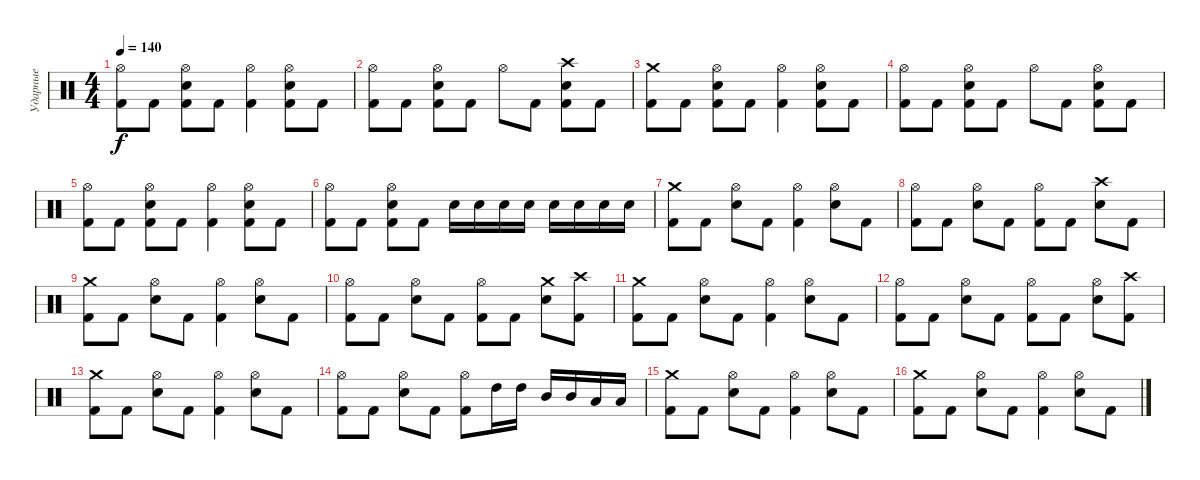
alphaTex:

\track ("Ударные" "Ударные") {instrument percussion}
\staff {score}
\articulation defaults
\ts (4 4)
\tempo 140
\clef neutral
\ks c
("Hi-Hat (open)" "Kick (hit) 2").8{dy f} "Kick (hit) 2".8 ("Hi-Hat (open)" "Electric Snare (hit)" "Kick (hit) 2").8 "Kick (hit) 2".8 ("Hi-Hat (open)" "Kick (hit) 2").4 ("Hi-Hat (open)" "Electric Snare (hit)" "Kick (hit) 2").8 "Kick (hit) 2".8 |
("Hi-Hat (open)" "Kick (hit) 2").8 "Kick (hit) 2".8 ("Hi-Hat (open)" "Electric Snare (hit)" "Kick (hit) 2").8 "Kick (hit) 2".8 "Hi-Hat (open)".8 "Kick (hit) 2".8 ("Crash high (hit)" "Electric Snare (hit)" "Kick (hit) 2").8 "Kick (hit) 2".8 |
("Crash medium (hit)" "Kick (hit) 2").8 "Kick (hit) 2".8 ("Hi-Hat (open)" "Electric Snare (hit)" "Kick (hit) 2").8 "Kick (hit) 2".8 ("Hi-Hat (open)" "Kick (hit) 2").4 ("Hi-Hat (open)" "Electric Snare (hit)" "Kick (hit) 2").8 "Kick (hit) 2".8 |
("Hi-Hat (open)" "Kick (hit) 2").8 "Kick (hit) 2".8 ("Hi-Hat (open)" "Electric Snare (hit)" "Kick (hit) 2").8 "Kick (hit) 2".8 "Hi-Hat (open)".8 "Kick (hit) 2".8 ("Hi-Hat (open)" "Electric Snare (hit)" "Kick (hit) 2").8 "Kick (hit) 2".8 |
("Hi-Hat (open)" "Kick (hit) 2").8 "Kick (hit) 2".8 ("Hi-Hat (open)" "Electric Snare (hit)" "Kick (hit) 2").8 "Kick (hit) 2".8 ("Hi-Hat (open)" "Kick (hit) 2").4 ("Hi-Hat (open)" "Electric Snare (hit)" "Kick (hit) 2").8 "Kick (hit) 2".8 |
("Hi-Hat (open)" "Kick (hit) 2").8 "Kick (hit) 2".8 ("Hi-Hat (open)" "Electric Snare (hit)" "Kick (hit) 2").8 "Kick (hit) 2".8 "Electric Snare (hit)".16 "Electric Snare (hit)".16 "Electric Snare (hit)".16 "Electric Snare (hit)".16 "Electric Snare (hit)".16 "Electric Snare (hit)".16 "Electric Snare (hit)".16 "Electric Snare (hit)".16 |
("Crash medium (hit)" "Kick (hit) 2").8 "Kick (hit) 2".8 ("Hi-Hat (open)" "Electric Snare (hit)").8 "Kick (hit) 2".8 ("Hi-Hat (open)" "Kick (hit) 2").4 ("Hi-Hat (open)" "Electric Snare (hit)").8 "Kick (hit) 2".8 |
("Hi-Hat (open)" "Kick (hit) 2").8 "Kick (hit) 2".8 ("Hi-Hat (open)" "Electric Snare (hit)").8 "Kick (hit) 2".8 ("Hi-Hat (open)" "Kick (hit) 2").8 "Kick (hit) 2".8 ("Crash high (hit)" "Electric Snare (hit)").8 "Kick (hit) 2".8 |
("Crash medium (hit)" "Kick (hit) 2").8 "Kick (hit) 2".8 ("Hi-Hat (open)" "Electric Snare (hit)").8 "Kick (hit) 2".8 ("Hi-Hat (open)" "Kick (hit) 2").4 ("Hi-Hat (open)" "Electric Snare (hit)").8 "Kick (hit) 2".8 |
("Hi-Hat (open)" "Kick (hit) 2").8 "Kick (hit) 2".8 ("Hi-Hat (open)" "Electric Snare (hit)").8 "Kick (hit) 2".8 ("Hi-Hat (open)" "Kick (hit) 2").8 "Kick (hit) 2".8 ("Crash medium (hit)" "Electric Snare (hit)").8 ("Crash high (hit)" "Kick (hit) 2").8 |
("Crash medium (hit)" "Kick (hit) 2").8 "Kick (hit) 2".8 ("Hi-Hat (open)" "Electric Snare (hit)").8 "Kick (hit) 2".8 ("Hi-Hat (open)" "Kick (hit) 2").4 ("Hi-Hat (open)" "Electric Snare (hit)").8 "Kick (hit) 2".8 |
("Hi-Hat (open)" "Kick (hit) 2").8 "Kick (hit) 2".8 ("Hi-Hat (open)" "Electric Snare (hit)").8 "Kick (hit) 2".8 ("Hi-Hat (open)" "Kick (hit) 2").8 "Kick (hit) 2".8 ("Hi-Hat (open)" "Electric Snare (hit)").8 ("Crash high (hit)" "Kick (hit) 2").8 |
("Crash medium (hit)" "Kick (hit) 2").8 "Kick (hit) 2".8 ("Hi-Hat (open)" "Electric Snare (hit)").8 "Kick (hit) 2".8 ("Hi-Hat (open)" "Kick (hit) 2").4 ("Hi-Hat (open)" "Electric Snare (hit)").8 "Kick (hit) 2".8 |
("Hi-Hat (open)" "Kick (hit) 2").8 "Kick (hit) 2".8 ("Hi-Hat (open)" "Electric Snare (hit)").8 "Kick (hit) 2".8 ("Hi-Hat (open)" "Kick (hit) 2").8 "High Tom (hit)".16 "High Tom (hit)".16 "Mid Tom (hit)".16 "Mid Tom (hit)".16 "Low Tom (hit)".16 "Low Tom (hit)".16 |
("Crash medium (hit)" "Kick (hit) 2").8 "Kick (hit) 2".8 ("Hi-Hat (open)" "Electric Snare (hit)").8 "Kick (hit) 2".8 ("Hi-Hat (open)" "Kick (hit) 2").4 ("Hi-Hat (open)" "Electric Snare (hit)").8 "Kick (hit) 2".8 |
("Crash medium (hit)" "Kick (hit) 2").8 "Kick (hit) 2".8 ("Hi-Hat (open)" "Electric Snare (hit)").8 "Kick (hit) 2".8 ("Hi-Hat (open)" "Kick (hit) 2").4 ("Hi-Hat (open)" "Electric Snare (hit)").8 "Kick (hit) 2".8
